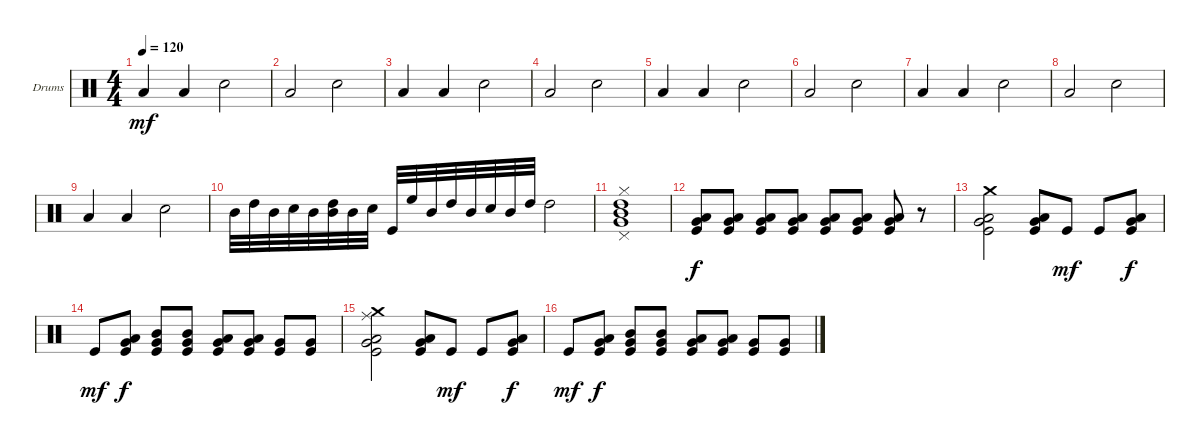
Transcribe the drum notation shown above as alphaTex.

\defaultSystemsLayout 4
\bracketExtendMode groupsimilarinstruments
\firstSystemTrackNameOrientation horizontal
\otherSystemsTrackNameOrientation horizontal
\track ("Drumkit" "Drums") {instrument percussion}
\staff {score}
\articulation defaults
\ts (4 4)
\tempo 120
\clef neutral
\ks c "Low Tom (hit)".4{dy mf} "Low Tom (hit)".4 "Snare (hit) 2".2
|
"Low Tom (hit)".2 "Snare (hit) 2".2 |
"Low Tom (hit)".4 "Low Tom (hit)".4 "Snare (hit) 2".2 |
"Low Tom (hit)".2 "Snare (hit) 2".2 |
"Low Tom (hit)".4 "Low Tom (hit)".4 "Snare (hit) 2".2 |
"Low Tom (hit)".2 "Snare (hit) 2".2 |
"Low Tom (hit)".4 "Low Tom (hit)".4 "Snare (hit) 2".2 |
"Low Tom (hit)".2 "Snare (hit) 2".2 |
"Low Tom (hit)".4 "Low Tom (hit)".4 "Snare (hit) 2".2 |
"Mid Tom (hit)".32 "High Tom (hit)".32 "Mid Tom (hit)".32 "Snare (hit) 2".32 "Mid Tom (hit)".32 ("High Tom (hit)" "Mid Tom (hit)").32 "Mid Tom (hit)".32 "Snare (hit) 2".32 "Kick (hit)".32 "High Floor Tom (hit)".32 "Mid Tom (hit)".32 "High Tom (hit)".32 "Mid Tom (hit)".32 "Snare (hit) 2".32 "Mid Tom (hit)".32 "High Tom (hit)".32 "High Tom (hit)".2 |
("Hi-Hat (closed)" "Mid Tom (hit)" "Very Low Tom (hit)" "High Tom (hit)" "Pedal Hi-Hat (hit)").1 |
("Low Tom (hit)" "Very Low Tom (hit)" "Kick (hit)").8{dy f} ("Low Tom (hit)" "Very Low Tom (hit)" "Kick (hit)").8 ("Low Tom (hit)" "Very Low Tom (hit)" "Kick (hit)").8 ("Low Tom (hit)" "Very Low Tom (hit)" "Kick (hit)").8 ("Low Tom (hit)" "Very Low Tom (hit)" "Kick (hit)").8 ("Low Tom (hit)" "Very Low Tom (hit)" "Kick (hit)").8 ("Low Tom (hit)" "Very Low Tom (hit)" "Kick (hit)").8 r.8 |
("Crash medium (hit)" "Low Tom (hit)" "Very Low Tom (hit)" "Kick (hit)").2 ("Low Tom (hit)" "Very Low Tom (hit)" "Kick (hit)").8 "Kick (hit)".8{dy mf} "Kick (hit)".8 ("Low Tom (hit)" "Very Low Tom (hit)" "Kick (hit)").8{dy f} |
"Kick (hit)".8{dy mf} ("Low Tom (hit)" "Very Low Tom (hit)" "Kick (hit)").8{dy f} ("Mid Tom (hit)" "Very Low Tom (hit)" "Kick (hit)").8 ("Mid Tom (hit)" "Very Low Tom (hit)" "Kick (hit)").8 ("Low Tom (hit)" "Very Low Tom (hit)" "Kick (hit)").8 ("Low Tom (hit)" "Very Low Tom (hit)" "Kick (hit)").8 ("Very Low Tom (hit)" "Kick (hit)").8 ("Very Low Tom (hit)" "Kick (hit)").8 |
("Crash medium (hit)" "Ride (middle)" "Low Tom (hit)" "Very Low Tom (hit)" "Kick (hit)").2 ("Low Tom (hit)" "Very Low Tom (hit)" "Kick (hit)").8 "Kick (hit)".8{dy mf} "Kick (hit)".8 ("Low Tom (hit)" "Very Low Tom (hit)" "Kick (hit)").8{dy f} |
"Kick (hit)".8{dy mf} ("Low Tom (hit)" "Very Low Tom (hit)" "Kick (hit)").8{dy f} ("Mid Tom (hit)" "Very Low Tom (hit)" "Kick (hit)").8 ("Mid Tom (hit)" "Very Low Tom (hit)" "Kick (hit)").8 ("Low Tom (hit)" "Very Low Tom (hit)" "Kick (hit)").8 ("Low Tom (hit)" "Very Low Tom (hit)" "Kick (hit)").8 ("Very Low Tom (hit)" "Kick (hit)").8 ("Very Low Tom (hit)" "Kick (hit)").8
